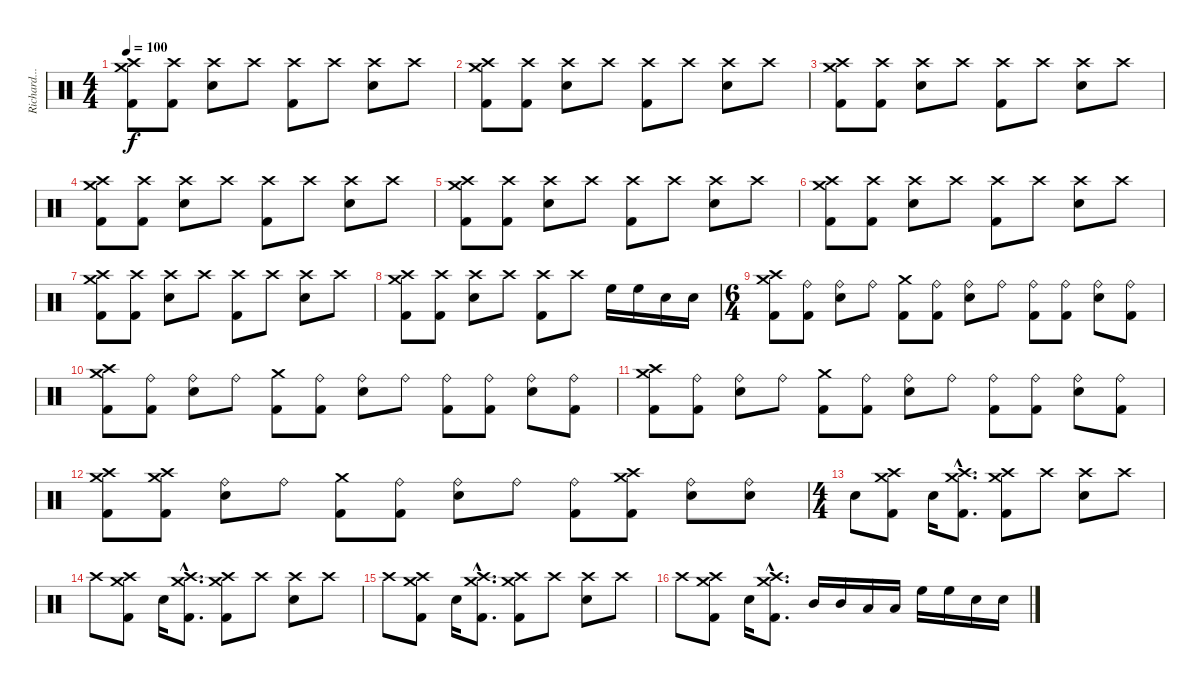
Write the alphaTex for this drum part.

\track ("Richard...clon..." "Richard...") {instrument percussion}
\staff {score}
\articulation defaults
\ts (4 4)
\tempo 100
\clef neutral
\ks c
("Crash medium (hit)" "Crash high (hit)" "Kick (hit) 2").8{dy f} ("Crash high (hit)" "Kick (hit) 2").8 ("Crash high (hit)" "Snare (hit) 2").8 "Crash high (hit)".8 ("Crash high (hit)" "Kick (hit) 2").8 "Crash high (hit)".8 ("Crash high (hit)" "Snare (hit) 2").8 "Crash high (hit)".8 |
("Crash medium (hit)" "Crash high (hit)" "Kick (hit) 2").8 ("Crash high (hit)" "Kick (hit) 2").8 ("Crash high (hit)" "Snare (hit) 2").8 "Crash high (hit)".8 ("Crash high (hit)" "Kick (hit) 2").8 "Crash high (hit)".8 ("Crash high (hit)" "Snare (hit) 2").8 "Crash high (hit)".8 |
("Crash medium (hit)" "Crash high (hit)" "Kick (hit) 2").8 ("Crash high (hit)" "Kick (hit) 2").8 ("Crash high (hit)" "Snare (hit) 2").8 "Crash high (hit)".8 ("Crash high (hit)" "Kick (hit) 2").8 "Crash high (hit)".8 ("Crash high (hit)" "Snare (hit) 2").8 "Crash high (hit)".8 |
("Crash medium (hit)" "Crash high (hit)" "Kick (hit) 2").8 ("Crash high (hit)" "Kick (hit) 2").8 ("Crash high (hit)" "Snare (hit) 2").8 "Crash high (hit)".8 ("Crash high (hit)" "Kick (hit) 2").8 "Crash high (hit)".8 ("Crash high (hit)" "Snare (hit) 2").8 "Crash high (hit)".8 |
("Crash medium (hit)" "Crash high (hit)" "Kick (hit) 2").8 ("Crash high (hit)" "Kick (hit) 2").8 ("Crash high (hit)" "Snare (hit) 2").8 "Crash high (hit)".8 ("Crash high (hit)" "Kick (hit) 2").8 "Crash high (hit)".8 ("Crash high (hit)" "Snare (hit) 2").8 "Crash high (hit)".8 |
("Crash medium (hit)" "Crash high (hit)" "Kick (hit) 2").8 ("Crash high (hit)" "Kick (hit) 2").8 ("Crash high (hit)" "Snare (hit) 2").8 "Crash high (hit)".8 ("Crash high (hit)" "Kick (hit) 2").8 "Crash high (hit)".8 ("Crash high (hit)" "Snare (hit) 2").8 "Crash high (hit)".8 |
("Crash medium (hit)" "Crash high (hit)" "Kick (hit) 2").8 ("Crash high (hit)" "Kick (hit) 2").8 ("Crash high (hit)" "Snare (hit) 2").8 "Crash high (hit)".8 ("Crash high (hit)" "Kick (hit) 2").8 "Crash high (hit)".8 ("Crash high (hit)" "Snare (hit) 2").8 "Crash high (hit)".8 |
("Crash medium (hit)" "Crash high (hit)" "Kick (hit) 2").8 ("Crash high (hit)" "Kick (hit) 2").8 ("Crash high (hit)" "Snare (hit) 2").8 "Crash high (hit)".8 ("Crash high (hit)" "Kick (hit) 2").8 "Crash high (hit)".8 "High Floor Tom (hit)".16 "High Floor Tom (hit)".16 "Snare (hit) 2".16 "Snare (hit) 2".16 |
\ts (6 4)
("Crash medium (hit)" "Crash high (hit)" "Kick (hit) 2").8 ("Ride (bell)" "Kick (hit) 2").8 ("Ride (bell)" "Snare (hit) 2").8 "Ride (bell)".8 ("Crash medium (hit)" "Kick (hit) 2").8 ("Ride (bell)" "Kick (hit) 2").8 ("Ride (bell)" "Snare (hit) 2").8 "Ride (bell)".8 ("Ride (bell)" "Kick (hit) 2").8 ("Ride (bell)" "Kick (hit) 2").8 ("Ride (bell)" "Snare (hit) 2").8 ("Ride (bell)" "Kick (hit) 2").8 |
("Crash medium (hit)" "Crash high (hit)" "Kick (hit) 2").8 ("Ride (bell)" "Kick (hit) 2").8 ("Ride (bell)" "Snare (hit) 2").8 "Ride (bell)".8 ("Crash medium (hit)" "Kick (hit) 2").8 ("Ride (bell)" "Kick (hit) 2").8 ("Ride (bell)" "Snare (hit) 2").8 "Ride (bell)".8 ("Ride (bell)" "Kick (hit) 2").8 ("Ride (bell)" "Kick (hit) 2").8 ("Ride (bell)" "Snare (hit) 2").8 ("Ride (bell)" "Kick (hit) 2").8 |
("Crash medium (hit)" "Crash high (hit)" "Kick (hit) 2").8 ("Ride (bell)" "Kick (hit) 2").8 ("Ride (bell)" "Snare (hit) 2").8 "Ride (bell)".8 ("Crash medium (hit)" "Kick (hit) 2").8 ("Ride (bell)" "Kick (hit) 2").8 ("Ride (bell)" "Snare (hit) 2").8 "Ride (bell)".8 ("Ride (bell)" "Kick (hit) 2").8 ("Ride (bell)" "Kick (hit) 2").8 ("Ride (bell)" "Snare (hit) 2").8 ("Ride (bell)" "Kick (hit) 2").8 |
("Crash medium (hit)" "Crash high (hit)" "Kick (hit) 2").8 ("Crash medium (hit)" "Crash high (hit)" "Kick (hit) 2").8 ("Ride (bell)" "Snare (hit) 2").8 "Ride (bell)".8 ("Crash medium (hit)" "Kick (hit) 2").8 ("Ride (bell)" "Kick (hit) 2").8 ("Ride (bell)" "Snare (hit) 2").8 "Ride (bell)".8 ("Ride (bell)" "Kick (hit) 2").8 ("Crash medium (hit)" "Crash high (hit)" "Kick (hit) 2").8 ("Ride (bell)" "Snare (hit) 2").8 ("Ride (bell)" "Snare (hit) 2").8 |
\ts (4 4)
"Snare (hit) 2".8 ("Crash medium (hit)" "Crash high (hit)" "Kick (hit) 2").8 "Snare (hit) 2".16 ("Crash medium (hit)"{hac} "Crash high (hit)"{hac} "Kick (hit) 2"{hac}).8{d} ("Crash medium (hit)" "Crash high (hit)" "Kick (hit) 2").8 "Crash high (hit)".8 ("Crash high (hit)" "Snare (hit) 2").8 "Crash high (hit)".8 |
"Crash high (hit)".8 ("Crash medium (hit)" "Crash high (hit)" "Kick (hit) 2").8 "Snare (hit) 2".16 ("Crash medium (hit)"{hac} "Crash high (hit)"{hac} "Kick (hit) 2"{hac}).8{d} ("Crash medium (hit)" "Crash high (hit)" "Kick (hit) 2").8 "Crash high (hit)".8 ("Crash high (hit)" "Snare (hit) 2").8 "Crash high (hit)".8 |
"Crash high (hit)".8 ("Crash medium (hit)" "Crash high (hit)" "Kick (hit) 2").8 "Snare (hit) 2".16 ("Crash medium (hit)"{hac} "Crash high (hit)"{hac} "Kick (hit) 2"{hac}).8{d} ("Crash medium (hit)" "Crash high (hit)" "Kick (hit) 2").8 "Crash high (hit)".8 ("Crash high (hit)" "Snare (hit) 2").8 "Crash high (hit)".8 |
"Crash high (hit)".8 ("Crash medium (hit)" "Crash high (hit)" "Kick (hit) 2").8 "Snare (hit) 2".16 ("Crash medium (hit)"{hac} "Crash high (hit)"{hac} "Kick (hit) 2"{hac}).8{d} "Mid Tom (hit)".16 "Mid Tom (hit)".16 "Low Tom (hit)".16 "Low Tom (hit)".16 "High Floor Tom (hit)".16 "High Floor Tom (hit)".16 "Snare (hit) 2".16 "Snare (hit) 2".16
